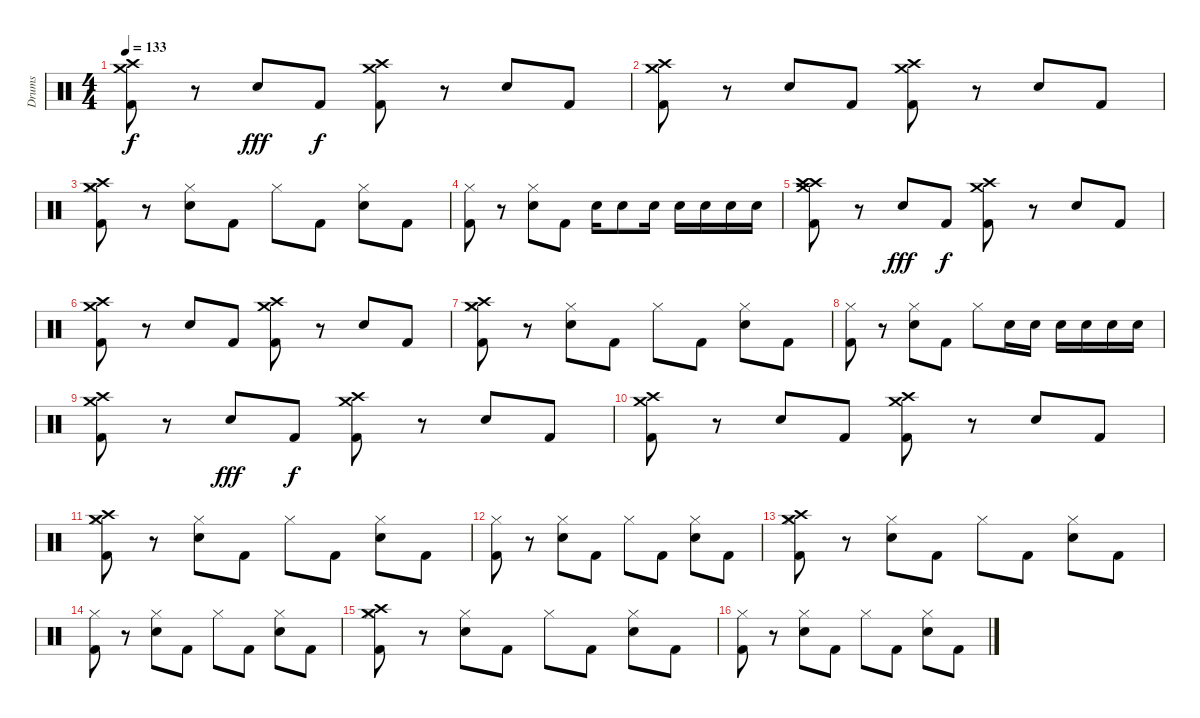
\track ("Drums" "Drums") {instrument percussion}
\staff {score}
\articulation defaults
\ts (4 4)
\tempo 133
\clef neutral
\ks c
("Crash high (hit)" "Crash medium (hit)" "Kick (hit) 2").8{dy f} r.8 "Snare (hit) 2".8{dy fff} "Kick (hit) 2".8{dy f} ("Crash high (hit)" "Crash medium (hit)" "Kick (hit) 2").8 r.8 "Snare (hit) 2".8 "Kick (hit) 2".8 |
("Crash high (hit)" "Crash medium (hit)" "Kick (hit) 2").8 r.8 "Snare (hit) 2".8 "Kick (hit) 2".8 ("Crash high (hit)" "Crash medium (hit)" "Kick (hit) 2").8 r.8 "Snare (hit) 2".8 "Kick (hit) 2".8 |
("Crash high (hit)" "Crash medium (hit)" "Hi-Hat (closed)" "Kick (hit) 2").8 r.8 ("Hi-Hat (closed)" "Snare (hit) 2").8 "Kick (hit) 2".8 "Hi-Hat (closed)".8 "Kick (hit) 2".8 ("Hi-Hat (closed)" "Snare (hit) 2").8 "Kick (hit) 2".8 |
("Hi-Hat (closed)" "Kick (hit) 2").8 r.8 ("Hi-Hat (closed)" "Snare (hit) 2").8 "Kick (hit) 2".8 "Snare (hit) 2".16 "Snare (hit) 2".8 "Snare (hit) 2".16 "Snare (hit) 2".16 "Snare (hit) 2".16 "Snare (hit) 2".16 "Snare (hit) 2".16 |
("Crash high (hit)" "Crash high (hit)" "Crash medium (hit)" "Kick (hit) 2").8 r.8 "Snare (hit) 2".8{dy fff} "Kick (hit) 2".8{dy f} ("Crash high (hit)" "Crash medium (hit)" "Kick (hit) 2").8 r.8 "Snare (hit) 2".8 "Kick (hit) 2".8 |
("Crash high (hit)" "Crash medium (hit)" "Kick (hit) 2").8 r.8 "Snare (hit) 2".8 "Kick (hit) 2".8 ("Crash high (hit)" "Crash medium (hit)" "Kick (hit) 2").8 r.8 "Snare (hit) 2".8 "Kick (hit) 2".8 |
("Crash high (hit)" "Crash medium (hit)" "Hi-Hat (closed)" "Kick (hit) 2").8 r.8 ("Hi-Hat (closed)" "Snare (hit) 2").8 "Kick (hit) 2".8 "Hi-Hat (closed)".8 "Kick (hit) 2".8 ("Hi-Hat (closed)" "Snare (hit) 2").8 "Kick (hit) 2".8 |
("Hi-Hat (closed)" "Kick (hit) 2").8 r.8 ("Hi-Hat (closed)" "Snare (hit) 2").8 "Kick (hit) 2".8 "Hi-Hat (closed)".8 "Snare (hit) 2".16 "Snare (hit) 2".16 "Snare (hit) 2".16 "Snare (hit) 2".16 "Snare (hit) 2".16 "Snare (hit) 2".16 |
("Crash high (hit)" "Crash medium (hit)" "Kick (hit) 2").8 r.8 "Snare (hit) 2".8{dy fff} "Kick (hit) 2".8{dy f} ("Crash high (hit)" "Crash medium (hit)" "Kick (hit) 2").8 r.8 "Snare (hit) 2".8 "Kick (hit) 2".8 |
("Crash high (hit)" "Crash medium (hit)" "Kick (hit) 2").8 r.8 "Snare (hit) 2".8 "Kick (hit) 2".8 ("Crash high (hit)" "Crash medium (hit)" "Kick (hit) 2").8 r.8 "Snare (hit) 2".8 "Kick (hit) 2".8 |
("Crash high (hit)" "Crash medium (hit)" "Hi-Hat (closed)" "Kick (hit) 2").8 r.8 ("Hi-Hat (closed)" "Snare (hit) 2").8 "Kick (hit) 2".8 "Hi-Hat (closed)".8 "Kick (hit) 2".8 ("Hi-Hat (closed)" "Snare (hit) 2").8 "Kick (hit) 2".8 |
("Hi-Hat (closed)" "Kick (hit) 2").8 r.8 ("Hi-Hat (closed)" "Snare (hit) 2").8 "Kick (hit) 2".8 "Hi-Hat (closed)".8 "Kick (hit) 2".8 ("Hi-Hat (closed)" "Snare (hit) 2").8 "Kick (hit) 2".8 |
("Crash high (hit)" "Crash medium (hit)" "Hi-Hat (closed)" "Kick (hit) 2").8 r.8 ("Hi-Hat (closed)" "Snare (hit) 2").8 "Kick (hit) 2".8 "Hi-Hat (closed)".8 "Kick (hit) 2".8 ("Hi-Hat (closed)" "Snare (hit) 2").8 "Kick (hit) 2".8 |
("Hi-Hat (closed)" "Kick (hit) 2").8 r.8 ("Hi-Hat (closed)" "Snare (hit) 2").8 "Kick (hit) 2".8 "Hi-Hat (closed)".8 "Kick (hit) 2".8 ("Hi-Hat (closed)" "Snare (hit) 2").8 "Kick (hit) 2".8 |
("Crash high (hit)" "Crash medium (hit)" "Hi-Hat (closed)" "Kick (hit) 2").8 r.8 ("Hi-Hat (closed)" "Snare (hit) 2").8 "Kick (hit) 2".8 "Hi-Hat (closed)".8 "Kick (hit) 2".8 ("Hi-Hat (closed)" "Snare (hit) 2").8 "Kick (hit) 2".8 |
("Hi-Hat (closed)" "Kick (hit) 2").8 r.8 ("Hi-Hat (closed)" "Snare (hit) 2").8 "Kick (hit) 2".8 "Hi-Hat (closed)".8 "Kick (hit) 2".8 ("Hi-Hat (closed)" "Snare (hit) 2").8 "Kick (hit) 2".8
